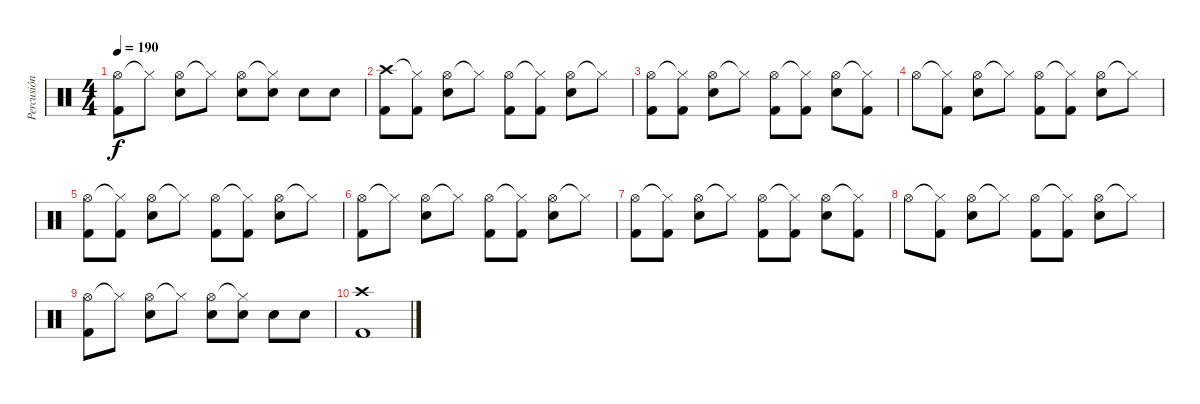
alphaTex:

\track ("Percusión" "Percusión") {instrument percussion}
\staff {score}
\articulation defaults
\ts (4 4)
\tempo 190
\clef neutral
\ks c
("Hi-Hat (open)" "Kick (hit) 2").8{dy f} "Hi-Hat (closed)"{t}.8 ("Hi-Hat (open)" "Snare (hit) 2").8 "Hi-Hat (closed)"{t}.8 ("Hi-Hat (open)" "Snare (hit) 2").8 ("Hi-Hat (closed)"{t} "Snare (hit) 2").8 "Snare (hit) 2".8 "Snare (hit) 2".8 |
("Crash high (hit)" "Kick (hit) 2").8 ("Hi-Hat (closed)"{t} "Kick (hit) 2").8 ("Hi-Hat (open)" "Snare (hit) 2").8 "Hi-Hat (closed)"{t}.8 ("Hi-Hat (open)" "Kick (hit) 2").8 ("Hi-Hat (closed)"{t} "Kick (hit) 2").8 ("Hi-Hat (open)" "Snare (hit) 2").8 "Hi-Hat (closed)"{t}.8 |
("Hi-Hat (open)" "Kick (hit) 2").8 ("Hi-Hat (closed)"{t} "Kick (hit) 2").8 ("Hi-Hat (open)" "Snare (hit) 2").8 "Hi-Hat (closed)"{t}.8 ("Hi-Hat (open)" "Kick (hit) 2").8 ("Hi-Hat (closed)"{t} "Kick (hit) 2").8 ("Hi-Hat (open)" "Snare (hit) 2").8 ("Hi-Hat (closed)"{t} "Kick (hit) 2").8 |
"Hi-Hat (open)".8 ("Hi-Hat (closed)"{t} "Kick (hit) 2").8 ("Hi-Hat (open)" "Snare (hit) 2").8 "Hi-Hat (closed)"{t}.8 ("Hi-Hat (open)" "Kick (hit) 2").8 ("Hi-Hat (closed)"{t} "Kick (hit) 2").8 ("Hi-Hat (open)" "Snare (hit) 2").8 "Hi-Hat (closed)"{t}.8 |
("Hi-Hat (open)" "Kick (hit) 2").8 ("Hi-Hat (closed)"{t} "Kick (hit) 2").8 ("Hi-Hat (open)" "Snare (hit) 2").8 "Hi-Hat (closed)"{t}.8 ("Hi-Hat (open)" "Kick (hit) 2").8 ("Hi-Hat (closed)"{t} "Kick (hit) 2").8 ("Hi-Hat (open)" "Snare (hit) 2").8 "Hi-Hat (closed)"{t}.8 |
("Hi-Hat (open)" "Kick (hit) 2").8 "Hi-Hat (closed)"{t}.8 ("Hi-Hat (open)" "Snare (hit) 2").8 "Hi-Hat (closed)"{t}.8 ("Hi-Hat (open)" "Kick (hit) 2").8 ("Hi-Hat (closed)"{t} "Kick (hit) 2").8 ("Hi-Hat (open)" "Snare (hit) 2").8 "Hi-Hat (closed)"{t}.8 |
("Hi-Hat (open)" "Kick (hit) 2").8 ("Hi-Hat (closed)"{t} "Kick (hit) 2").8 ("Hi-Hat (open)" "Snare (hit) 2").8 "Hi-Hat (closed)"{t}.8 ("Hi-Hat (open)" "Kick (hit) 2").8 ("Hi-Hat (closed)"{t} "Kick (hit) 2").8 ("Hi-Hat (open)" "Snare (hit) 2").8 ("Hi-Hat (closed)"{t} "Kick (hit) 2").8 |
"Hi-Hat (open)".8 ("Hi-Hat (closed)"{t} "Kick (hit) 2").8 ("Hi-Hat (open)" "Snare (hit) 2").8 "Hi-Hat (closed)"{t}.8 ("Hi-Hat (open)" "Kick (hit) 2").8 ("Hi-Hat (closed)"{t} "Kick (hit) 2").8 ("Hi-Hat (open)" "Snare (hit) 2").8 "Hi-Hat (closed)"{t}.8 |
("Hi-Hat (open)" "Kick (hit) 2").8 "Hi-Hat (closed)"{t}.8 ("Hi-Hat (open)" "Snare (hit) 2").8 "Hi-Hat (closed)"{t}.8 ("Hi-Hat (open)" "Snare (hit) 2").8 ("Hi-Hat (closed)"{t} "Snare (hit) 2").8 "Snare (hit) 2".8 "Snare (hit) 2".8 |
("Kick (hit) 2" "Crash high (hit)").1
